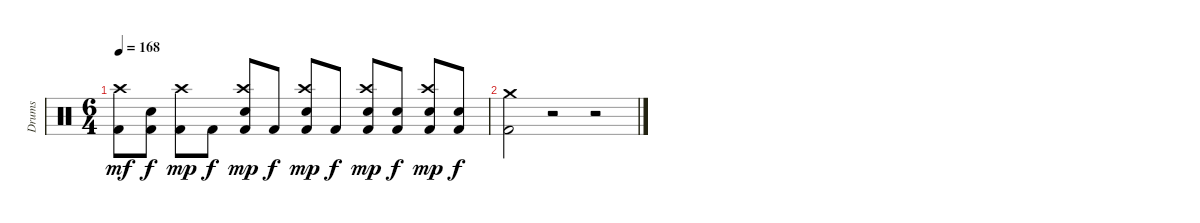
\track ("Drums" "Drums") {instrument percussion}
\staff {score}
\articulation defaults
\ts (6 4)
\tempo 168
\clef neutral
\ks c
("Kick (hit) 2" "Crash high (hit)").8{dy mf} ("Kick (hit) 2" "Electric Snare (hit)").8{dy f} ("Kick (hit) 2" "Crash high (hit)").8{dy mp} "Kick (hit) 2".8{dy f} ("Kick (hit) 2" "Electric Snare (hit)" "Crash high (hit)").8{dy mp} "Kick (hit) 2".8{dy f} ("Kick (hit) 2" "Electric Snare (hit)" "Crash high (hit)").8{dy mp} "Kick (hit) 2".8{dy f} ("Kick (hit) 2" "Electric Snare (hit)" "Crash high (hit)").8{dy mp} ("Kick (hit) 2" "Electric Snare (hit)").8{dy f} ("Kick (hit) 2" "Electric Snare (hit)" "Crash high (hit)").8{dy mp} ("Kick (hit) 2" "Electric Snare (hit)").8{dy f} |
("Kick (hit) 2" "Crash medium (hit)").2 r.2 r.2
